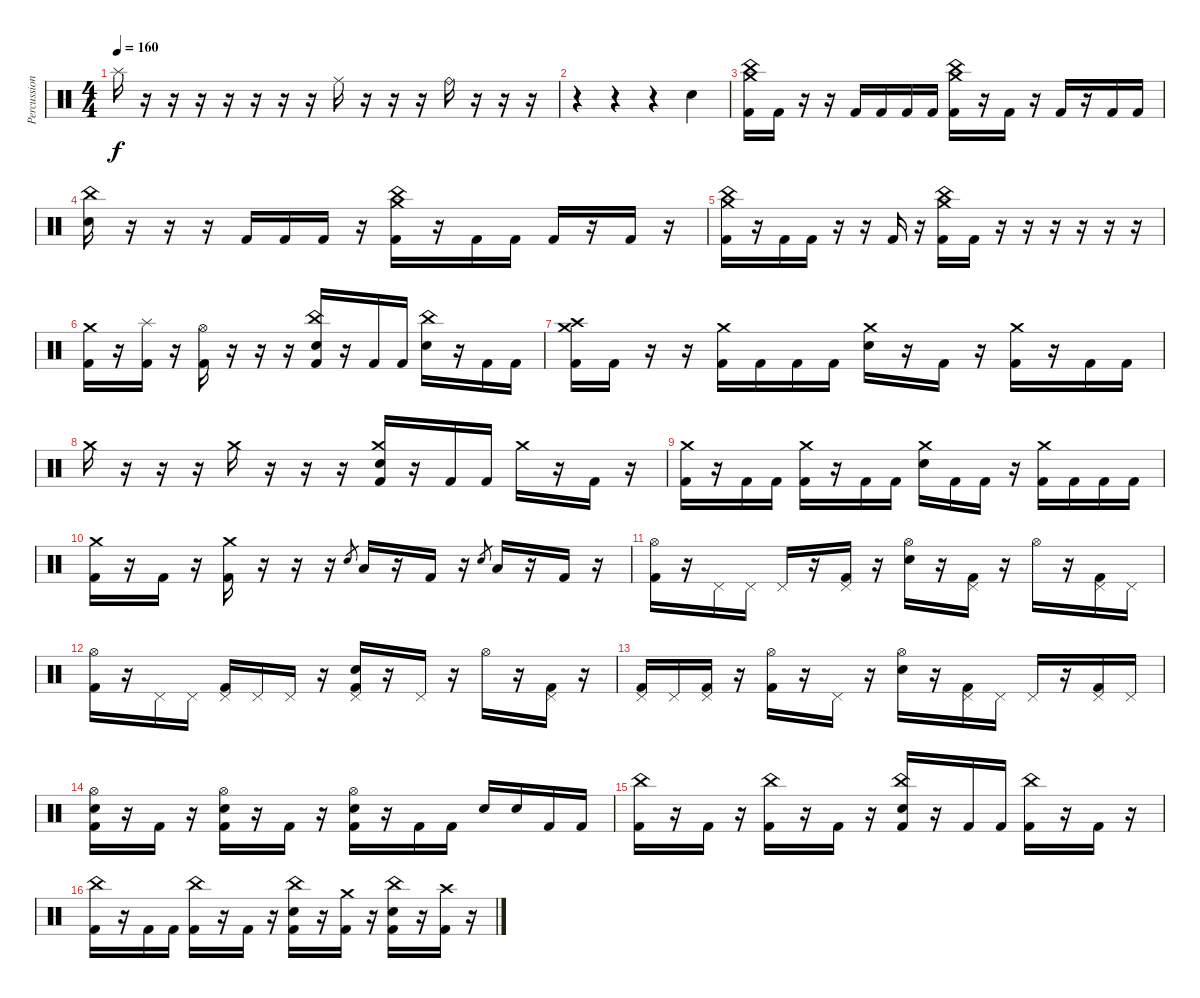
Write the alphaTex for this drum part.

\track ("Percussion" "Percussion") {instrument percussion}
\staff {score}
\articulation defaults
\ts (4 4)
\tempo 160
\clef neutral
\ks c "Splash (hit)".16{dy f}
r.16 r.16 r.16 r.16 r.16 r.16 r.16 "Ride (middle)".16 r.16 r.16 r.16 "Ride (bell)".16 r.16 r.16 r.16 |
r.4 r.4 r.4 "Electric Snare (hit)".4 |
("Crash medium (hit)" "China (hit)" "Kick (hit) 2").16 "Kick (hit) 2".16 r.16 r.16 "Kick (hit) 2".16 "Kick (hit) 2".16 "Kick (hit) 2".16 "Kick (hit) 2".16 ("China (hit)" "Crash medium (hit)" "Kick (hit) 2").16 r.16 "Kick (hit) 2".16 r.16 "Kick (hit) 2".16 r.16 "Kick (hit) 2".16 "Kick (hit) 2".16 |
("China (hit)" "Electric Snare (hit)").16 r.16 r.16 r.16 "Kick (hit) 2".16 "Kick (hit) 2".16 "Kick (hit) 2".16 r.16 ("China (hit)" "Crash medium (hit)" "Kick (hit) 2").16 r.16 "Kick (hit) 2".16 "Kick (hit) 2".16 "Kick (hit) 2".16 r.16 "Kick (hit) 2".16 r.16 |
("China (hit)" "Crash medium (hit)" "Kick (hit) 2").16 r.16 "Kick (hit) 2".16 "Kick (hit) 2".16 r.16 r.16 "Kick (hit) 2".16 r.16 ("China (hit)" "Crash medium (hit)" "Kick (hit) 2").16 "Kick (hit) 2".16 r.16 r.16 r.16 r.16 r.16 r.16 |
("Crash medium (hit)" "Kick (hit) 2").16 r.16 ("Splash (hit)" "Kick (hit) 2").16 r.16 ("Hi-Hat (open)" "Kick (hit) 2").16 r.16 r.16 r.16 ("China (hit)" "Electric Snare (hit)" "Kick (hit) 2").16 r.16 "Kick (hit) 2".16 "Kick (hit) 2".16 ("China (hit)" "Electric Snare (hit)").16 r.16 "Kick (hit) 2".16 "Kick (hit) 2".16 |
("Crash medium (hit)" "Crash high (hit)" "Kick (hit) 2").16 "Kick (hit) 2".16 r.16 r.16 ("Crash medium (hit)" "Kick (hit) 2").16 "Kick (hit) 2".16 "Kick (hit) 2".16 "Kick (hit) 2".16 ("Crash medium (hit)" "Electric Snare (hit)").16 r.16 "Kick (hit) 2".16 r.16 ("Crash medium (hit)" "Kick (hit) 2").16 r.16 "Kick (hit) 2".16 "Kick (hit) 2".16 |
"Crash medium (hit)".16 r.16 r.16 r.16 "Crash medium (hit)".16 r.16 r.16 r.16 ("Crash medium (hit)" "Electric Snare (hit)" "Kick (hit) 2").16 r.16 "Kick (hit) 2".16 "Kick (hit) 2".16 "Crash medium (hit)".16 r.16 "Kick (hit) 2".16 r.16 |
("Crash medium (hit)" "Kick (hit) 2").16 r.16 "Kick (hit) 2".16 "Kick (hit) 2".16 ("Crash medium (hit)" "Kick (hit) 2").16 r.16 "Kick (hit) 2".16 "Kick (hit) 2".16 ("Crash medium (hit)" "Electric Snare (hit)").16 "Kick (hit) 2".16 "Kick (hit) 2".16 r.16 ("Crash medium (hit)" "Kick (hit) 2").16 "Kick (hit) 2".16 "Kick (hit) 2".16 "Kick (hit) 2".16 |
("Crash medium (hit)" "Kick (hit) 2").16 r.16 "Kick (hit) 2".16 r.16 ("Crash medium (hit)" "Kick (hit) 2").16 r.16 r.16 r.16 "Electric Snare (hit)".8{gr} "Low Floor Tom (hit)".16 r.16 "Kick (hit) 2".16 r.16 "Electric Snare (hit)".8{gr} "Low Floor Tom (hit)".16 r.16 "Kick (hit) 2".16 r.16 |
("Hi-Hat (open)" "Kick (hit) 2").16 r.16 "Pedal Hi-Hat (hit)".16 "Pedal Hi-Hat (hit)".16 "Pedal Hi-Hat (hit)".16 r.16 ("Pedal Hi-Hat (hit)" "Kick (hit) 2").16 r.16 ("Hi-Hat (open)" "Electric Snare (hit)").16 r.16 ("Pedal Hi-Hat (hit)" "Kick (hit) 2").16 r.16 "Hi-Hat (open)".16 r.16 ("Pedal Hi-Hat (hit)" "Kick (hit) 2").16 "Pedal Hi-Hat (hit)".16 |
("Hi-Hat (open)" "Kick (hit) 2").16 r.16 "Pedal Hi-Hat (hit)".16 "Pedal Hi-Hat (hit)".16 ("Pedal Hi-Hat (hit)" "Kick (hit) 2").16 "Pedal Hi-Hat (hit)".16 "Pedal Hi-Hat (hit)".16 r.16 ("Pedal Hi-Hat (hit)" "Electric Snare (hit)" "Kick (hit) 2").16 r.16 "Pedal Hi-Hat (hit)".16 r.16 "Hi-Hat (open)".16 r.16 ("Pedal Hi-Hat (hit)" "Kick (hit) 2").16 r.16 |
("Pedal Hi-Hat (hit)" "Kick (hit) 2").16 "Pedal Hi-Hat (hit)".16 ("Pedal Hi-Hat (hit)" "Kick (hit) 2").16 r.16 ("Hi-Hat (open)" "Kick (hit) 2").16 r.16 "Pedal Hi-Hat (hit)".16 r.16 ("Hi-Hat (open)" "Electric Snare (hit)").16 r.16 ("Pedal Hi-Hat (hit)" "Kick (hit) 2").16 "Pedal Hi-Hat (hit)".16 "Pedal Hi-Hat (hit)".16 r.16 ("Pedal Hi-Hat (hit)" "Kick (hit) 2").16 "Pedal Hi-Hat (hit)".16 |
("Hi-Hat (open)" "Electric Snare (hit)" "Kick (hit) 2").16 r.16 "Kick (hit) 2".16 r.16 ("Hi-Hat (open)" "Electric Snare (hit)" "Kick (hit) 2").16 r.16 "Kick (hit) 2".16 r.16 ("Hi-Hat (open)" "Electric Snare (hit)" "Kick (hit) 2").16 r.16 "Kick (hit) 2".16 "Kick (hit) 2".16 "Electric Snare (hit)".16 "Electric Snare (hit)".16 "Kick (hit) 2".16 "Kick (hit) 2".16 |
("China (hit)" "Kick (hit) 2").16 r.16 "Kick (hit) 2".16 r.16 ("China (hit)" "Kick (hit) 2").16 r.16 "Kick (hit) 2".16 r.16 ("China (hit)" "Electric Snare (hit)" "Kick (hit) 2").16 r.16 "Kick (hit) 2".16 "Kick (hit) 2".16 ("China (hit)" "Kick (hit) 2").16 r.16 "Kick (hit) 2".16 r.16 |
("China (hit)" "Kick (hit) 2").16 r.16 "Kick (hit) 2".16 "Kick (hit) 2".16 ("China (hit)" "Kick (hit) 2").16 r.16 "Kick (hit) 2".16 r.16 ("China (hit)" "Electric Snare (hit)" "Kick (hit) 2").16 r.16 ("Crash medium (hit)" "Kick (hit) 2").16 r.16 ("China (hit)" "Electric Snare (hit)" "Kick (hit) 2").16 r.16 ("Crash high (hit)" "Kick (hit) 2").16 r.16
